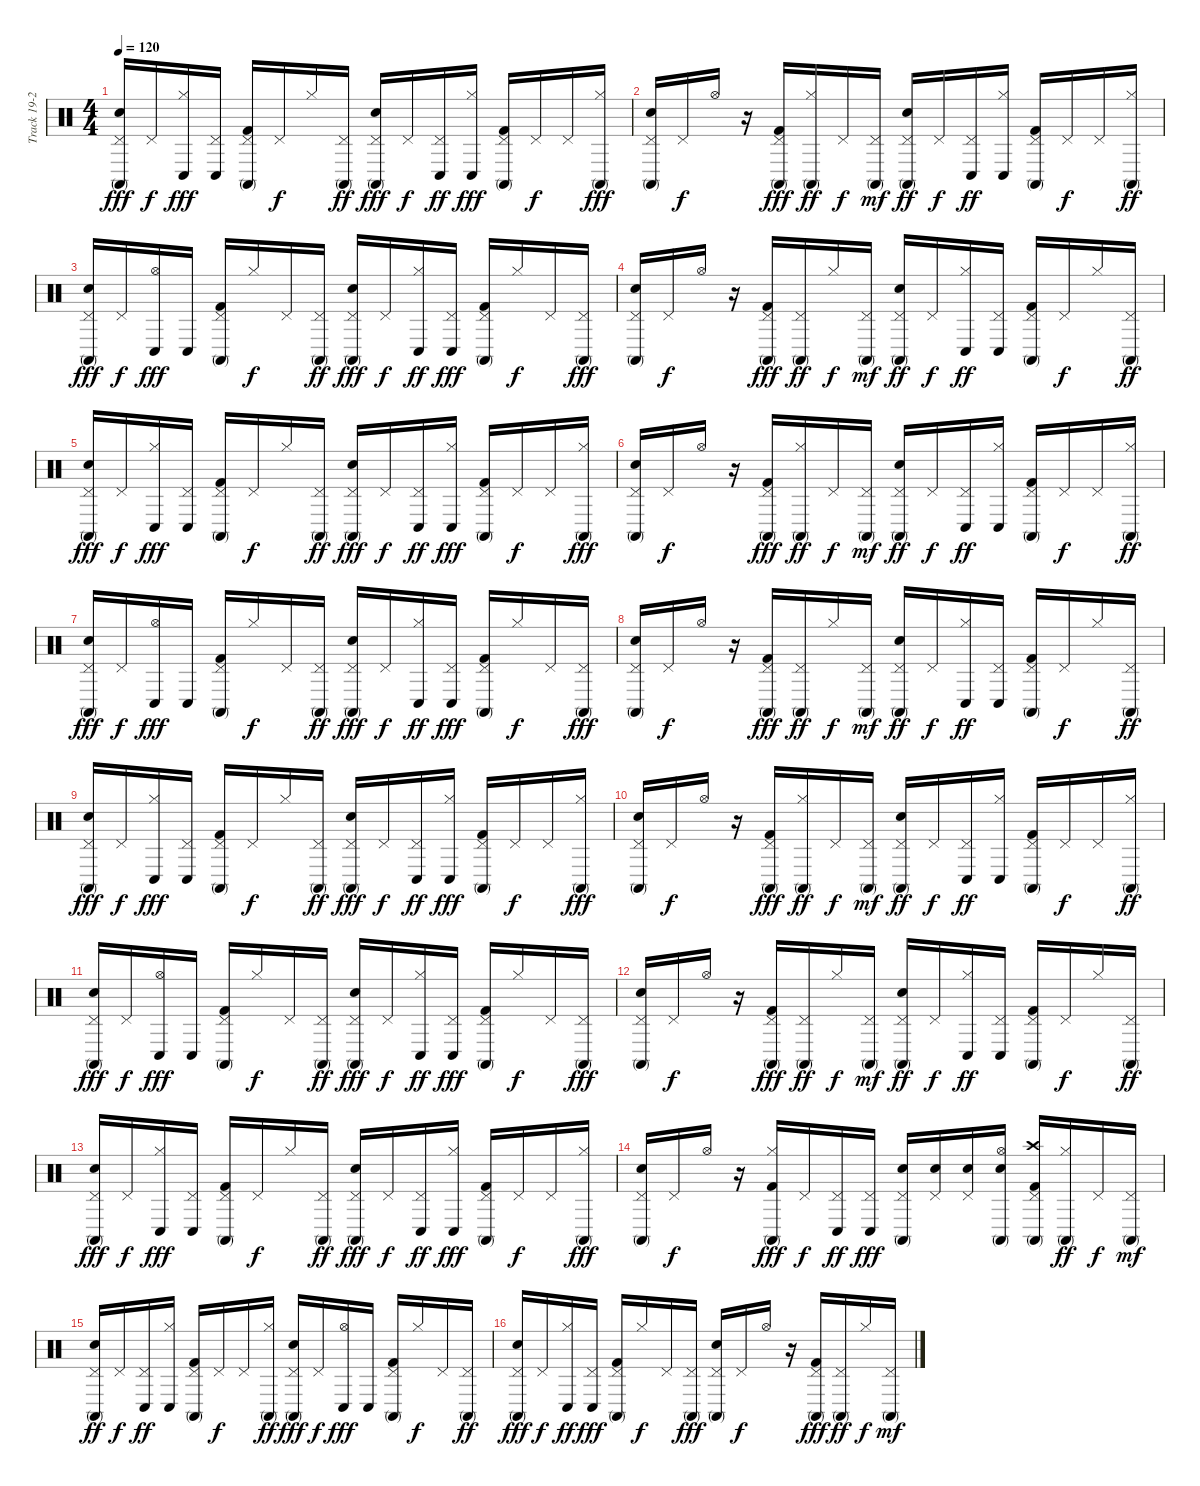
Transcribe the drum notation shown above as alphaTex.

\track ("Track 19-20-21" "Track 19-2") {instrument percussion}
\staff {score}
\articulation defaults
\ts (4 4)
\tempo 120
\clef neutral
\ks c
("Conga high (mute)" "Snare (hit) 2" "Pedal Hi-Hat (hit)").16{dy fff} "Pedal Hi-Hat (hit)".16{dy f} ("Hi-Hat (closed)" "Conga low (hit)").16{dy fff} ("Pedal Hi-Hat (hit)" "Conga low (hit)").16 ("Pedal Hi-Hat (hit)" "Conga high (mute)" "Kick (hit) 2").16 "Pedal Hi-Hat (hit)".16{dy f} "Hi-Hat (closed)".16 ("Pedal Hi-Hat (hit)" "Conga high (mute)").16{dy ff} ("Pedal Hi-Hat (hit)" "Conga high (mute)" "Snare (hit) 2").16{dy fff} "Pedal Hi-Hat (hit)".16{dy f} ("Pedal Hi-Hat (hit)" "Conga low (hit)").16{dy ff} ("Hi-Hat (closed)" "Conga low (hit)").16{dy fff} ("Pedal Hi-Hat (hit)" "Conga high (mute)" "Kick (hit) 2").16 "Pedal Hi-Hat (hit)".16{dy f} "Pedal Hi-Hat (hit)".16 ("Hi-Hat (closed)" "Conga high (mute)").16{dy fff} |
("Pedal Hi-Hat (hit)" "Conga high (mute)" "Snare (hit) 2").16 "Pedal Hi-Hat (hit)".16{dy f} "Hi-Hat (open)".16 r.16 ("Conga high (mute)" "Kick (hit) 2" "Pedal Hi-Hat (hit)").16{dy fff} ("Hi-Hat (closed)" "Conga high (mute)").16{dy ff} "Pedal Hi-Hat (hit)".16{dy f} ("Conga high (mute)" "Pedal Hi-Hat (hit)").16{dy mf} ("Conga high (mute)" "Snare (hit) 2" "Pedal Hi-Hat (hit)").16{dy ff} "Pedal Hi-Hat (hit)".16{dy f} ("Conga low (hit)" "Pedal Hi-Hat (hit)").16{dy ff} ("Hi-Hat (closed)" "Conga low (hit)").16 ("Conga high (mute)" "Kick (hit) 2" "Pedal Hi-Hat (hit)").16 "Pedal Hi-Hat (hit)".16{dy f} "Pedal Hi-Hat (hit)".16 ("Hi-Hat (closed)" "Conga high (mute)").16{dy ff} |
("Conga high (mute)" "Snare (hit) 2" "Pedal Hi-Hat (hit)").16{dy fff} "Pedal Hi-Hat (hit)".16{dy f} ("Hi-Hat (open)" "Conga low (hit)").16{dy fff} "Conga low (hit)".16 ("Pedal Hi-Hat (hit)" "Conga high (mute)" "Kick (hit) 2").16 "Hi-Hat (closed)".16{dy f} "Pedal Hi-Hat (hit)".16 ("Pedal Hi-Hat (hit)" "Conga high (mute)").16{dy ff} ("Pedal Hi-Hat (hit)" "Conga high (mute)" "Snare (hit) 2").16{dy fff} "Pedal Hi-Hat (hit)".16{dy f} ("Hi-Hat (closed)" "Conga low (hit)").16{dy ff} ("Pedal Hi-Hat (hit)" "Conga low (hit)").16{dy fff} ("Pedal Hi-Hat (hit)" "Conga high (mute)" "Kick (hit) 2").16 "Hi-Hat (closed)".16{dy f} "Pedal Hi-Hat (hit)".16 ("Pedal Hi-Hat (hit)" "Conga high (mute)").16{dy fff} |
("Pedal Hi-Hat (hit)" "Conga high (mute)" "Snare (hit) 2").16 "Pedal Hi-Hat (hit)".16{dy f} "Hi-Hat (open)".16 r.16 ("Conga high (mute)" "Kick (hit) 2" "Pedal Hi-Hat (hit)").16{dy fff} ("Pedal Hi-Hat (hit)" "Conga high (mute)").16{dy ff} "Hi-Hat (closed)".16{dy f} ("Conga high (mute)" "Pedal Hi-Hat (hit)").16{dy mf} ("Conga high (mute)" "Snare (hit) 2" "Pedal Hi-Hat (hit)").16{dy ff} "Pedal Hi-Hat (hit)".16{dy f} ("Hi-Hat (closed)" "Conga low (hit)").16{dy ff} ("Pedal Hi-Hat (hit)" "Conga low (hit)").16 ("Conga high (mute)" "Kick (hit) 2" "Pedal Hi-Hat (hit)").16 "Pedal Hi-Hat (hit)".16{dy f} "Hi-Hat (closed)".16 ("Pedal Hi-Hat (hit)" "Conga high (mute)").16{dy ff} |
("Conga high (mute)" "Snare (hit) 2" "Pedal Hi-Hat (hit)").16{dy fff} "Pedal Hi-Hat (hit)".16{dy f} ("Hi-Hat (closed)" "Conga low (hit)").16{dy fff} ("Pedal Hi-Hat (hit)" "Conga low (hit)").16 ("Pedal Hi-Hat (hit)" "Conga high (mute)" "Kick (hit) 2").16 "Pedal Hi-Hat (hit)".16{dy f} "Hi-Hat (closed)".16 ("Pedal Hi-Hat (hit)" "Conga high (mute)").16{dy ff} ("Pedal Hi-Hat (hit)" "Conga high (mute)" "Snare (hit) 2").16{dy fff} "Pedal Hi-Hat (hit)".16{dy f} ("Pedal Hi-Hat (hit)" "Conga low (hit)").16{dy ff} ("Hi-Hat (closed)" "Conga low (hit)").16{dy fff} ("Pedal Hi-Hat (hit)" "Conga high (mute)" "Kick (hit) 2").16 "Pedal Hi-Hat (hit)".16{dy f} "Pedal Hi-Hat (hit)".16 ("Hi-Hat (closed)" "Conga high (mute)").16{dy fff} |
("Pedal Hi-Hat (hit)" "Conga high (mute)" "Snare (hit) 2").16 "Pedal Hi-Hat (hit)".16{dy f} "Hi-Hat (open)".16 r.16 ("Conga high (mute)" "Kick (hit) 2" "Pedal Hi-Hat (hit)").16{dy fff} ("Hi-Hat (closed)" "Conga high (mute)").16{dy ff} "Pedal Hi-Hat (hit)".16{dy f} ("Conga high (mute)" "Pedal Hi-Hat (hit)").16{dy mf} ("Conga high (mute)" "Snare (hit) 2" "Pedal Hi-Hat (hit)").16{dy ff} "Pedal Hi-Hat (hit)".16{dy f} ("Conga low (hit)" "Pedal Hi-Hat (hit)").16{dy ff} ("Hi-Hat (closed)" "Conga low (hit)").16 ("Conga high (mute)" "Kick (hit) 2" "Pedal Hi-Hat (hit)").16 "Pedal Hi-Hat (hit)".16{dy f} "Pedal Hi-Hat (hit)".16 ("Hi-Hat (closed)" "Conga high (mute)").16{dy ff} |
("Conga high (mute)" "Snare (hit) 2" "Pedal Hi-Hat (hit)").16{dy fff} "Pedal Hi-Hat (hit)".16{dy f} ("Hi-Hat (open)" "Conga low (hit)").16{dy fff} "Conga low (hit)".16 ("Pedal Hi-Hat (hit)" "Conga high (mute)" "Kick (hit) 2").16 "Hi-Hat (closed)".16{dy f} "Pedal Hi-Hat (hit)".16 ("Pedal Hi-Hat (hit)" "Conga high (mute)").16{dy ff} ("Pedal Hi-Hat (hit)" "Conga high (mute)" "Snare (hit) 2").16{dy fff} "Pedal Hi-Hat (hit)".16{dy f} ("Hi-Hat (closed)" "Conga low (hit)").16{dy ff} ("Pedal Hi-Hat (hit)" "Conga low (hit)").16{dy fff} ("Pedal Hi-Hat (hit)" "Conga high (mute)" "Kick (hit) 2").16 "Hi-Hat (closed)".16{dy f} "Pedal Hi-Hat (hit)".16 ("Pedal Hi-Hat (hit)" "Conga high (mute)").16{dy fff} |
("Pedal Hi-Hat (hit)" "Conga high (mute)" "Snare (hit) 2").16 "Pedal Hi-Hat (hit)".16{dy f} "Hi-Hat (open)".16 r.16 ("Conga high (mute)" "Kick (hit) 2" "Pedal Hi-Hat (hit)").16{dy fff} ("Pedal Hi-Hat (hit)" "Conga high (mute)").16{dy ff} "Hi-Hat (closed)".16{dy f} ("Conga high (mute)" "Pedal Hi-Hat (hit)").16{dy mf} ("Conga high (mute)" "Snare (hit) 2" "Pedal Hi-Hat (hit)").16{dy ff} "Pedal Hi-Hat (hit)".16{dy f} ("Hi-Hat (closed)" "Conga low (hit)").16{dy ff} ("Pedal Hi-Hat (hit)" "Conga low (hit)").16 ("Conga high (mute)" "Kick (hit) 2" "Pedal Hi-Hat (hit)").16 "Pedal Hi-Hat (hit)".16{dy f} "Hi-Hat (closed)".16 ("Pedal Hi-Hat (hit)" "Conga high (mute)").16{dy ff} |
("Conga high (mute)" "Snare (hit) 2" "Pedal Hi-Hat (hit)").16{dy fff} "Pedal Hi-Hat (hit)".16{dy f} ("Hi-Hat (closed)" "Conga low (hit)").16{dy fff} ("Pedal Hi-Hat (hit)" "Conga low (hit)").16 ("Pedal Hi-Hat (hit)" "Conga high (mute)" "Kick (hit) 2").16 "Pedal Hi-Hat (hit)".16{dy f} "Hi-Hat (closed)".16 ("Pedal Hi-Hat (hit)" "Conga high (mute)").16{dy ff} ("Pedal Hi-Hat (hit)" "Conga high (mute)" "Snare (hit) 2").16{dy fff} "Pedal Hi-Hat (hit)".16{dy f} ("Pedal Hi-Hat (hit)" "Conga low (hit)").16{dy ff} ("Hi-Hat (closed)" "Conga low (hit)").16{dy fff} ("Pedal Hi-Hat (hit)" "Conga high (mute)" "Kick (hit) 2").16 "Pedal Hi-Hat (hit)".16{dy f} "Pedal Hi-Hat (hit)".16 ("Hi-Hat (closed)" "Conga high (mute)").16{dy fff} |
("Pedal Hi-Hat (hit)" "Conga high (mute)" "Snare (hit) 2").16 "Pedal Hi-Hat (hit)".16{dy f} "Hi-Hat (open)".16 r.16 ("Conga high (mute)" "Kick (hit) 2" "Pedal Hi-Hat (hit)").16{dy fff} ("Hi-Hat (closed)" "Conga high (mute)").16{dy ff} "Pedal Hi-Hat (hit)".16{dy f} ("Conga high (mute)" "Pedal Hi-Hat (hit)").16{dy mf} ("Conga high (mute)" "Snare (hit) 2" "Pedal Hi-Hat (hit)").16{dy ff} "Pedal Hi-Hat (hit)".16{dy f} ("Conga low (hit)" "Pedal Hi-Hat (hit)").16{dy ff} ("Hi-Hat (closed)" "Conga low (hit)").16 ("Conga high (mute)" "Kick (hit) 2" "Pedal Hi-Hat (hit)").16 "Pedal Hi-Hat (hit)".16{dy f} "Pedal Hi-Hat (hit)".16 ("Hi-Hat (closed)" "Conga high (mute)").16{dy ff} |
("Conga high (mute)" "Snare (hit) 2" "Pedal Hi-Hat (hit)").16{dy fff} "Pedal Hi-Hat (hit)".16{dy f} ("Hi-Hat (open)" "Conga low (hit)").16{dy fff} "Conga low (hit)".16 ("Pedal Hi-Hat (hit)" "Conga high (mute)" "Kick (hit) 2").16 "Hi-Hat (closed)".16{dy f} "Pedal Hi-Hat (hit)".16 ("Pedal Hi-Hat (hit)" "Conga high (mute)").16{dy ff} ("Pedal Hi-Hat (hit)" "Conga high (mute)" "Snare (hit) 2").16{dy fff} "Pedal Hi-Hat (hit)".16{dy f} ("Hi-Hat (closed)" "Conga low (hit)").16{dy ff} ("Pedal Hi-Hat (hit)" "Conga low (hit)").16{dy fff} ("Pedal Hi-Hat (hit)" "Conga high (mute)" "Kick (hit) 2").16 "Hi-Hat (closed)".16{dy f} "Pedal Hi-Hat (hit)".16 ("Pedal Hi-Hat (hit)" "Conga high (mute)").16{dy fff} |
("Pedal Hi-Hat (hit)" "Conga high (mute)" "Snare (hit) 2").16 "Pedal Hi-Hat (hit)".16{dy f} "Hi-Hat (open)".16 r.16 ("Conga high (mute)" "Kick (hit) 2" "Pedal Hi-Hat (hit)").16{dy fff} ("Pedal Hi-Hat (hit)" "Conga high (mute)").16{dy ff} "Hi-Hat (closed)".16{dy f} ("Conga high (mute)" "Pedal Hi-Hat (hit)").16{dy mf} ("Conga high (mute)" "Snare (hit) 2" "Pedal Hi-Hat (hit)").16{dy ff} "Pedal Hi-Hat (hit)".16{dy f} ("Hi-Hat (closed)" "Conga low (hit)").16{dy ff} ("Pedal Hi-Hat (hit)" "Conga low (hit)").16 ("Conga high (mute)" "Kick (hit) 2" "Pedal Hi-Hat (hit)").16 "Pedal Hi-Hat (hit)".16{dy f} "Hi-Hat (closed)".16 ("Pedal Hi-Hat (hit)" "Conga high (mute)").16{dy ff} |
("Conga high (mute)" "Snare (hit) 2" "Pedal Hi-Hat (hit)").16{dy fff} "Pedal Hi-Hat (hit)".16{dy f} ("Hi-Hat (closed)" "Conga low (hit)").16{dy fff} ("Pedal Hi-Hat (hit)" "Conga low (hit)").16 ("Pedal Hi-Hat (hit)" "Conga high (mute)" "Kick (hit) 2").16 "Pedal Hi-Hat (hit)".16{dy f} "Hi-Hat (closed)".16 ("Pedal Hi-Hat (hit)" "Conga high (mute)").16{dy ff} ("Pedal Hi-Hat (hit)" "Conga high (mute)" "Snare (hit) 2").16{dy fff} "Pedal Hi-Hat (hit)".16{dy f} ("Pedal Hi-Hat (hit)" "Conga low (hit)").16{dy ff} ("Hi-Hat (closed)" "Conga low (hit)").16{dy fff} ("Pedal Hi-Hat (hit)" "Conga high (mute)" "Kick (hit) 2").16 "Pedal Hi-Hat (hit)".16{dy f} "Pedal Hi-Hat (hit)".16 ("Hi-Hat (closed)" "Conga high (mute)").16{dy fff} |
("Pedal Hi-Hat (hit)" "Conga high (mute)" "Snare (hit) 2").16 "Pedal Hi-Hat (hit)".16{dy f} "Hi-Hat (open)".16 r.16 ("Hi-Hat (closed)" "Conga high (mute)" "Kick (hit) 2").16{dy fff} "Pedal Hi-Hat (hit)".16{dy f} ("Pedal Hi-Hat (hit)" "Conga low (hit)").16{dy ff} ("Pedal Hi-Hat (hit)" "Conga low (hit)").16{dy fff} ("Pedal Hi-Hat (hit)" "Conga high (mute)" "Snare (hit) 2").16 ("Pedal Hi-Hat (hit)" "Snare (hit) 2").16 ("Pedal Hi-Hat (hit)" "Snare (hit) 2").16 ("Hi-Hat (open)" "Conga high (mute)" "Snare (hit) 2").16 ("Crash high (hit)" "Conga high (mute)" "Kick (hit) 2" "Pedal Hi-Hat (hit)").16 ("Hi-Hat (closed)" "Conga high (mute)").16{dy ff} "Pedal Hi-Hat (hit)".16{dy f} ("Conga high (mute)" "Pedal Hi-Hat (hit)").16{dy mf} |
("Conga high (mute)" "Snare (hit) 2" "Pedal Hi-Hat (hit)").16{dy ff} "Pedal Hi-Hat (hit)".16{dy f} ("Conga low (hit)" "Pedal Hi-Hat (hit)").16{dy ff} ("Hi-Hat (closed)" "Conga low (hit)").16 ("Conga high (mute)" "Kick (hit) 2" "Pedal Hi-Hat (hit)").16 "Pedal Hi-Hat (hit)".16{dy f} "Pedal Hi-Hat (hit)".16 ("Hi-Hat (closed)" "Conga high (mute)").16{dy ff} ("Conga high (mute)" "Snare (hit) 2" "Pedal Hi-Hat (hit)").16{dy fff} "Pedal Hi-Hat (hit)".16{dy f} ("Hi-Hat (open)" "Conga low (hit)").16{dy fff} "Conga low (hit)".16 ("Pedal Hi-Hat (hit)" "Conga high (mute)" "Kick (hit) 2").16 "Hi-Hat (closed)".16{dy f} "Pedal Hi-Hat (hit)".16 ("Pedal Hi-Hat (hit)" "Conga high (mute)").16{dy ff} |
("Pedal Hi-Hat (hit)" "Conga high (mute)" "Snare (hit) 2").16{dy fff} "Pedal Hi-Hat (hit)".16{dy f} ("Hi-Hat (closed)" "Conga low (hit)").16{dy ff} ("Pedal Hi-Hat (hit)" "Conga low (hit)").16{dy fff} ("Pedal Hi-Hat (hit)" "Conga high (mute)" "Kick (hit) 2").16 "Hi-Hat (closed)".16{dy f} "Pedal Hi-Hat (hit)".16 ("Pedal Hi-Hat (hit)" "Conga high (mute)").16{dy fff} ("Pedal Hi-Hat (hit)" "Conga high (mute)" "Snare (hit) 2").16 "Pedal Hi-Hat (hit)".16{dy f} "Hi-Hat (open)".16 r.16 ("Conga high (mute)" "Kick (hit) 2" "Pedal Hi-Hat (hit)").16{dy fff} ("Pedal Hi-Hat (hit)" "Conga high (mute)").16{dy ff} "Hi-Hat (closed)".16{dy f} ("Conga high (mute)" "Pedal Hi-Hat (hit)").16{dy mf}
